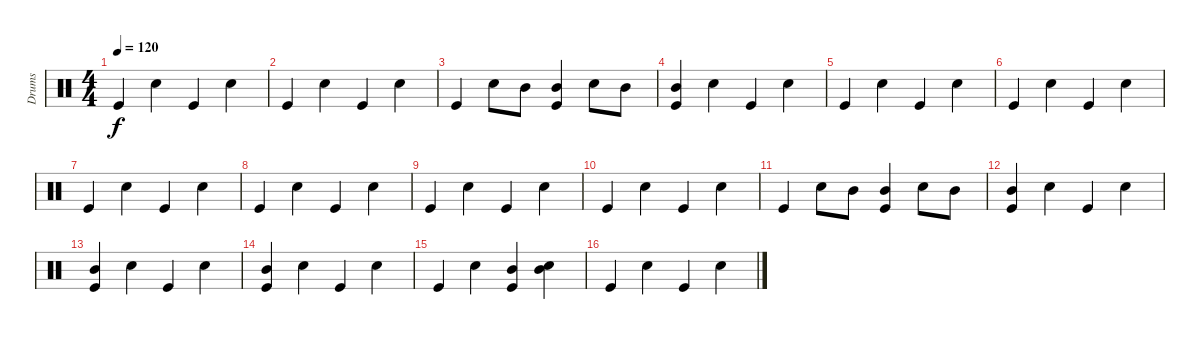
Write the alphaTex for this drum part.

\track ("Drums" "Drums") {instrument percussion}
\staff {score}
\articulation defaults
\ts (4 4)
\tempo 120
\clef neutral
\ks c "Kick (hit)".4{dy f} "Snare (hit) 2".4 "Kick (hit)".4 "Snare (hit) 2".4
|
"Kick (hit)".4 "Snare (hit) 2".4 "Kick (hit)".4 "Snare (hit) 2".4 |
"Kick (hit)".4 "Snare (hit) 2".8 "Mid Tom (hit)".8 ("Mid Tom (hit)" "Kick (hit)").4 "Snare (hit) 2".8 "Mid Tom (hit)".8 |
("Mid Tom (hit)" "Kick (hit)").4 "Snare (hit) 2".4 "Kick (hit)".4 "Snare (hit) 2".4 |
"Kick (hit)".4 "Snare (hit) 2".4 "Kick (hit)".4 "Snare (hit) 2".4 |
"Kick (hit)".4 "Snare (hit) 2".4 "Kick (hit)".4 "Snare (hit) 2".4 |
"Kick (hit)".4 "Snare (hit) 2".4 "Kick (hit)".4 "Snare (hit) 2".4 |
"Kick (hit)".4 "Snare (hit) 2".4 "Kick (hit)".4 "Snare (hit) 2".4 |
"Kick (hit)".4 "Snare (hit) 2".4 "Kick (hit)".4 "Snare (hit) 2".4 |
"Kick (hit)".4 "Snare (hit) 2".4 "Kick (hit)".4 "Snare (hit) 2".4 |
"Kick (hit)".4 "Snare (hit) 2".8 "Mid Tom (hit)".8 ("Mid Tom (hit)" "Kick (hit)").4 "Snare (hit) 2".8 "Mid Tom (hit)".8 |
("Mid Tom (hit)" "Kick (hit)").4 "Snare (hit) 2".4 "Kick (hit)".4 "Snare (hit) 2".4 |
("Mid Tom (hit)" "Kick (hit)").4 "Snare (hit) 2".4 "Kick (hit)".4 "Snare (hit) 2".4 |
("Mid Tom (hit)" "Kick (hit)").4 "Snare (hit) 2".4 "Kick (hit)".4 "Snare (hit) 2".4 |
"Kick (hit)".4 "Snare (hit) 2".4 ("Mid Tom (hit)" "Kick (hit)").4 ("Mid Tom (hit)" "Snare (hit) 2").4 |
"Kick (hit)".4 "Snare (hit) 2".4 "Kick (hit)".4 "Snare (hit) 2".4
